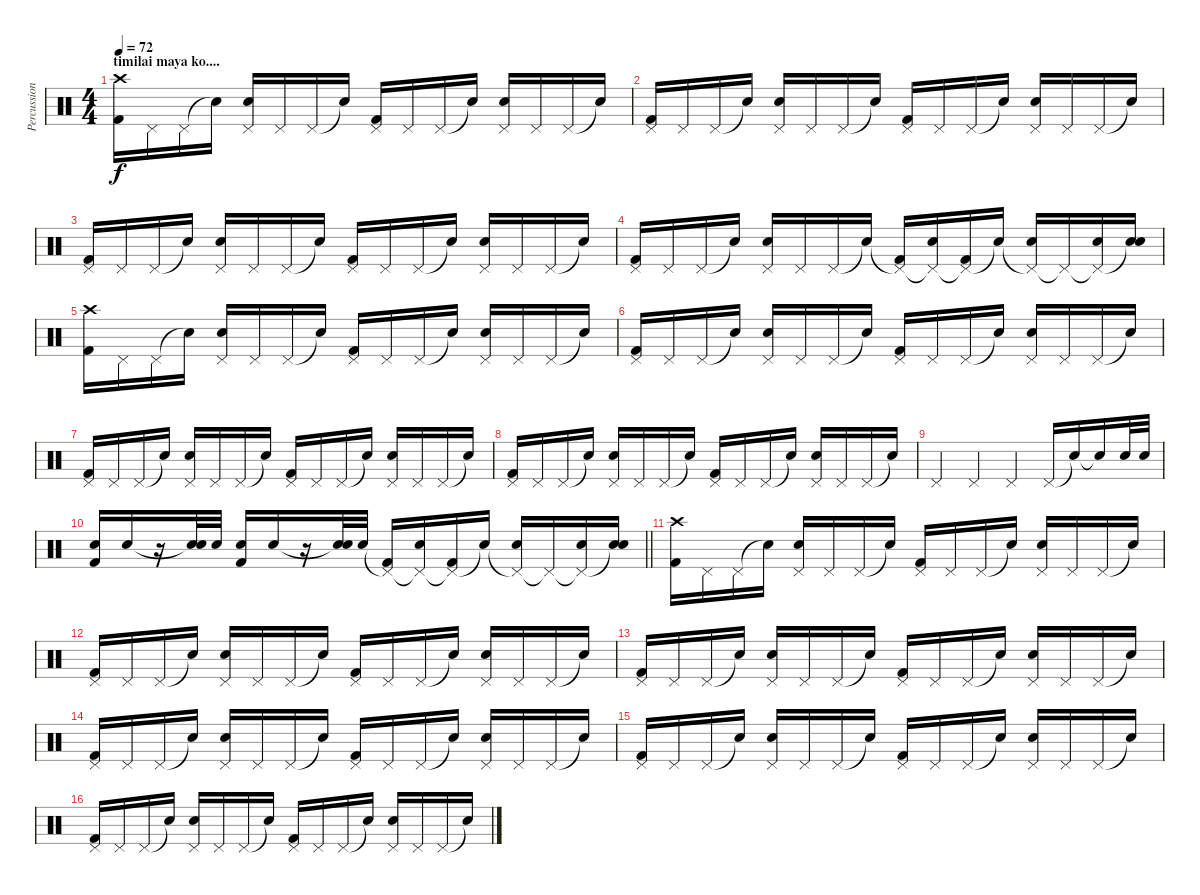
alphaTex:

\track ("Percussion" "Percussion") {instrument percussion}
\staff {score}
\articulation defaults
\ts (4 4)
\section ("" "timilai maya ko....")
\tempo 72
\clef neutral
\ks c
("Crash high (hit)" "Kick (hit) 2").16{dy f} "Pedal Hi-Hat (hit)".16 "Pedal Hi-Hat (hit)".16 "Snare (hit)"{t}.16 ("Pedal Hi-Hat (hit)" "Electric Snare (hit)").16 "Pedal Hi-Hat (hit)".16 "Pedal Hi-Hat (hit)".16 "Snare (hit)"{t}.16 ("Pedal Hi-Hat (hit)" "Kick (hit) 2").16 "Pedal Hi-Hat (hit)".16 "Pedal Hi-Hat (hit)".16 "Snare (hit)"{t}.16 ("Pedal Hi-Hat (hit)" "Electric Snare (hit)").16 "Pedal Hi-Hat (hit)".16 "Pedal Hi-Hat (hit)".16 "Snare (hit)"{t}.16 |
("Pedal Hi-Hat (hit)" "Kick (hit) 2").16 "Pedal Hi-Hat (hit)".16 "Pedal Hi-Hat (hit)".16 "Snare (hit)"{t}.16 ("Pedal Hi-Hat (hit)" "Electric Snare (hit)").16 "Pedal Hi-Hat (hit)".16 "Pedal Hi-Hat (hit)".16 "Snare (hit)"{t}.16 ("Pedal Hi-Hat (hit)" "Kick (hit) 2").16 "Pedal Hi-Hat (hit)".16 "Pedal Hi-Hat (hit)".16 "Snare (hit)"{t}.16 ("Pedal Hi-Hat (hit)" "Electric Snare (hit)").16 "Pedal Hi-Hat (hit)".16 "Pedal Hi-Hat (hit)".16 "Snare (hit)"{t}.16 |
("Pedal Hi-Hat (hit)" "Kick (hit) 2").16 "Pedal Hi-Hat (hit)".16 "Pedal Hi-Hat (hit)".16 "Snare (hit)"{t}.16 ("Pedal Hi-Hat (hit)" "Electric Snare (hit)").16 "Pedal Hi-Hat (hit)".16 "Pedal Hi-Hat (hit)".16 "Snare (hit)"{t}.16 ("Pedal Hi-Hat (hit)" "Kick (hit) 2").16 "Pedal Hi-Hat (hit)".16 "Pedal Hi-Hat (hit)".16 "Snare (hit)"{t}.16 ("Pedal Hi-Hat (hit)" "Electric Snare (hit)").16 "Pedal Hi-Hat (hit)".16 "Pedal Hi-Hat (hit)".16 "Snare (hit)"{t}.16 |
("Pedal Hi-Hat (hit)" "Kick (hit) 2").16 "Pedal Hi-Hat (hit)".16 "Pedal Hi-Hat (hit)".16 "Snare (hit)"{t}.16 ("Pedal Hi-Hat (hit)" "Electric Snare (hit)").16 "Pedal Hi-Hat (hit)".16 "Pedal Hi-Hat (hit)".16 "Snare (hit)"{t}.16 ("Pedal Hi-Hat (hit)"{t} "Kick (hit) 2").16 ("Pedal Hi-Hat (hit)"{t} "Electric Snare (hit)").16 ("Pedal Hi-Hat (hit)"{t} "Kick (hit) 2").16 "Snare (hit)"{t}.16 ("Pedal Hi-Hat (hit)"{t} "Electric Snare (hit)").16 "Pedal Hi-Hat (hit)"{t}.16 ("Pedal Hi-Hat (hit)"{t} "Electric Snare (hit)").16 ("Snare (hit)"{t} "Electric Snare (hit)").16 |
("Crash high (hit)" "Kick (hit) 2").16 "Pedal Hi-Hat (hit)".16 "Pedal Hi-Hat (hit)".16 "Snare (hit)"{t}.16 ("Pedal Hi-Hat (hit)" "Electric Snare (hit)").16 "Pedal Hi-Hat (hit)".16 "Pedal Hi-Hat (hit)".16 "Snare (hit)"{t}.16 ("Pedal Hi-Hat (hit)" "Kick (hit) 2").16 "Pedal Hi-Hat (hit)".16 "Pedal Hi-Hat (hit)".16 "Snare (hit)"{t}.16 ("Pedal Hi-Hat (hit)" "Electric Snare (hit)").16 "Pedal Hi-Hat (hit)".16 "Pedal Hi-Hat (hit)".16 "Snare (hit)"{t}.16 |
("Pedal Hi-Hat (hit)" "Kick (hit) 2").16 "Pedal Hi-Hat (hit)".16 "Pedal Hi-Hat (hit)".16 "Snare (hit)"{t}.16 ("Pedal Hi-Hat (hit)" "Electric Snare (hit)").16 "Pedal Hi-Hat (hit)".16 "Pedal Hi-Hat (hit)".16 "Snare (hit)"{t}.16 ("Pedal Hi-Hat (hit)" "Kick (hit) 2").16 "Pedal Hi-Hat (hit)".16 "Pedal Hi-Hat (hit)".16 "Snare (hit)"{t}.16 ("Pedal Hi-Hat (hit)" "Electric Snare (hit)").16 "Pedal Hi-Hat (hit)".16 "Pedal Hi-Hat (hit)".16 "Snare (hit)"{t}.16 |
("Pedal Hi-Hat (hit)" "Kick (hit) 2").16 "Pedal Hi-Hat (hit)".16 "Pedal Hi-Hat (hit)".16 "Snare (hit)"{t}.16 ("Pedal Hi-Hat (hit)" "Electric Snare (hit)").16 "Pedal Hi-Hat (hit)".16 "Pedal Hi-Hat (hit)".16 "Snare (hit)"{t}.16 ("Pedal Hi-Hat (hit)" "Kick (hit) 2").16 "Pedal Hi-Hat (hit)".16 "Pedal Hi-Hat (hit)".16 "Snare (hit)"{t}.16 ("Pedal Hi-Hat (hit)" "Electric Snare (hit)").16 "Pedal Hi-Hat (hit)".16 "Pedal Hi-Hat (hit)".16 "Snare (hit)"{t}.16 |
("Pedal Hi-Hat (hit)" "Kick (hit) 2").16 "Pedal Hi-Hat (hit)".16 "Pedal Hi-Hat (hit)".16 "Snare (hit)"{t}.16 ("Pedal Hi-Hat (hit)" "Electric Snare (hit)").16 "Pedal Hi-Hat (hit)".16 "Pedal Hi-Hat (hit)".16 "Snare (hit)"{t}.16 ("Pedal Hi-Hat (hit)" "Kick (hit) 2").16 "Pedal Hi-Hat (hit)".16 "Pedal Hi-Hat (hit)".16 "Snare (hit)"{t}.16 ("Pedal Hi-Hat (hit)" "Electric Snare (hit)").16 "Pedal Hi-Hat (hit)".16 "Pedal Hi-Hat (hit)".16 "Snare (hit)"{t}.16 |
"Pedal Hi-Hat (hit)".4 "Pedal Hi-Hat (hit)".4 "Pedal Hi-Hat (hit)".4 "Pedal Hi-Hat (hit)".16 "Snare (hit)"{t}.16 "Snare (hit)"{t}.16 "Electric Snare (hit)".32 "Electric Snare (hit)".32 |
\barLineRight lightlight
("Electric Snare (hit)" "Kick (hit) 2").16 "Electric Snare (hit)".16 r.16 ("Electric Snare (hit)"{t} "Electric Snare (hit)").32 "Electric Snare (hit)".32 ("Electric Snare (hit)" "Kick (hit) 2").16 "Electric Snare (hit)".16 r.16 ("Electric Snare (hit)"{t} "Electric Snare (hit)").32 "Electric Snare (hit)".32 ("Pedal Hi-Hat (hit)"{t} "Kick (hit) 2").16 ("Pedal Hi-Hat (hit)"{t} "Electric Snare (hit)").16 ("Pedal Hi-Hat (hit)"{t} "Kick (hit) 2").16 "Snare (hit)"{t}.16 ("Pedal Hi-Hat (hit)"{t} "Electric Snare (hit)").16 "Pedal Hi-Hat (hit)"{t}.16 ("Pedal Hi-Hat (hit)"{t} "Electric Snare (hit)").16 ("Snare (hit)"{t} "Electric Snare (hit)").16 |
("Crash high (hit)" "Kick (hit) 2").16 "Pedal Hi-Hat (hit)".16 "Pedal Hi-Hat (hit)".16 "Snare (hit)"{t}.16 ("Pedal Hi-Hat (hit)" "Electric Snare (hit)").16 "Pedal Hi-Hat (hit)".16 "Pedal Hi-Hat (hit)".16 "Snare (hit)"{t}.16 ("Pedal Hi-Hat (hit)" "Kick (hit) 2").16 "Pedal Hi-Hat (hit)".16 "Pedal Hi-Hat (hit)".16 "Snare (hit)"{t}.16 ("Pedal Hi-Hat (hit)" "Electric Snare (hit)").16 "Pedal Hi-Hat (hit)".16 "Pedal Hi-Hat (hit)".16 "Snare (hit)"{t}.16 |
("Pedal Hi-Hat (hit)" "Kick (hit) 2").16 "Pedal Hi-Hat (hit)".16 "Pedal Hi-Hat (hit)".16 "Snare (hit)"{t}.16 ("Pedal Hi-Hat (hit)" "Electric Snare (hit)").16 "Pedal Hi-Hat (hit)".16 "Pedal Hi-Hat (hit)".16 "Snare (hit)"{t}.16 ("Pedal Hi-Hat (hit)" "Kick (hit) 2").16 "Pedal Hi-Hat (hit)".16 "Pedal Hi-Hat (hit)".16 "Snare (hit)"{t}.16 ("Pedal Hi-Hat (hit)" "Electric Snare (hit)").16 "Pedal Hi-Hat (hit)".16 "Pedal Hi-Hat (hit)".16 "Snare (hit)"{t}.16 |
("Pedal Hi-Hat (hit)" "Kick (hit) 2").16 "Pedal Hi-Hat (hit)".16 "Pedal Hi-Hat (hit)".16 "Snare (hit)"{t}.16 ("Pedal Hi-Hat (hit)" "Electric Snare (hit)").16 "Pedal Hi-Hat (hit)".16 "Pedal Hi-Hat (hit)".16 "Snare (hit)"{t}.16 ("Pedal Hi-Hat (hit)" "Kick (hit) 2").16 "Pedal Hi-Hat (hit)".16 "Pedal Hi-Hat (hit)".16 "Snare (hit)"{t}.16 ("Pedal Hi-Hat (hit)" "Electric Snare (hit)").16 "Pedal Hi-Hat (hit)".16 "Pedal Hi-Hat (hit)".16 "Snare (hit)"{t}.16 |
("Pedal Hi-Hat (hit)" "Kick (hit) 2").16 "Pedal Hi-Hat (hit)".16 "Pedal Hi-Hat (hit)".16 "Snare (hit)"{t}.16 ("Pedal Hi-Hat (hit)" "Electric Snare (hit)").16 "Pedal Hi-Hat (hit)".16 "Pedal Hi-Hat (hit)".16 "Snare (hit)"{t}.16 ("Pedal Hi-Hat (hit)" "Kick (hit) 2").16 "Pedal Hi-Hat (hit)".16 "Pedal Hi-Hat (hit)".16 "Snare (hit)"{t}.16 ("Pedal Hi-Hat (hit)" "Electric Snare (hit)").16 "Pedal Hi-Hat (hit)".16 "Pedal Hi-Hat (hit)".16 "Snare (hit)"{t}.16 |
("Pedal Hi-Hat (hit)" "Kick (hit) 2").16 "Pedal Hi-Hat (hit)".16 "Pedal Hi-Hat (hit)".16 "Snare (hit)"{t}.16 ("Pedal Hi-Hat (hit)" "Electric Snare (hit)").16 "Pedal Hi-Hat (hit)".16 "Pedal Hi-Hat (hit)".16 "Snare (hit)"{t}.16 ("Pedal Hi-Hat (hit)" "Kick (hit) 2").16 "Pedal Hi-Hat (hit)".16 "Pedal Hi-Hat (hit)".16 "Snare (hit)"{t}.16 ("Pedal Hi-Hat (hit)" "Electric Snare (hit)").16 "Pedal Hi-Hat (hit)".16 "Pedal Hi-Hat (hit)".16 "Snare (hit)"{t}.16 |
("Pedal Hi-Hat (hit)" "Kick (hit) 2").16 "Pedal Hi-Hat (hit)".16 "Pedal Hi-Hat (hit)".16 "Snare (hit)"{t}.16 ("Pedal Hi-Hat (hit)" "Electric Snare (hit)").16 "Pedal Hi-Hat (hit)".16 "Pedal Hi-Hat (hit)".16 "Snare (hit)"{t}.16 ("Pedal Hi-Hat (hit)" "Kick (hit) 2").16 "Pedal Hi-Hat (hit)".16 "Pedal Hi-Hat (hit)".16 "Snare (hit)"{t}.16 ("Pedal Hi-Hat (hit)" "Electric Snare (hit)").16 "Pedal Hi-Hat (hit)".16 "Pedal Hi-Hat (hit)".16 "Snare (hit)"{t}.16
